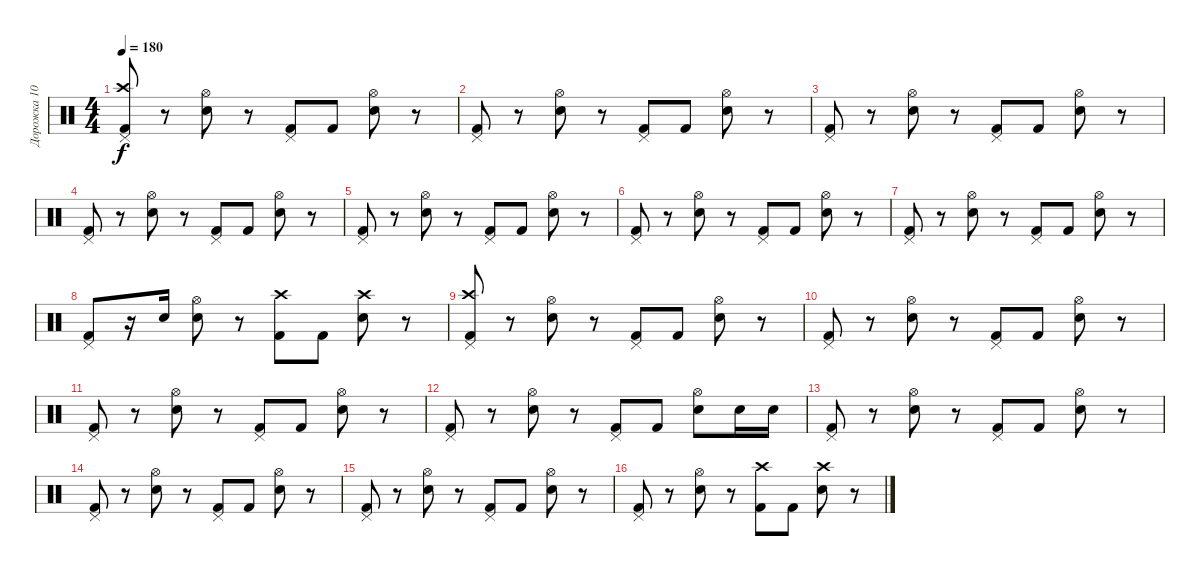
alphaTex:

\track ("Дорожка 10" "Дорожка 10") {instrument percussion}
\staff {score}
\articulation defaults
\ts (4 4)
\tempo 180
\clef neutral
\ks c
("Kick (hit) 2" "Crash high (hit)" "Pedal Hi-Hat (hit)").8{dy f} r.8 ("Snare (hit) 2" "Hi-Hat (open)").8 r.8 ("Kick (hit) 2" "Pedal Hi-Hat (hit)").8 "Kick (hit) 2".8 ("Snare (hit) 2" "Hi-Hat (open)").8 r.8 |
("Kick (hit) 2" "Pedal Hi-Hat (hit)").8 r.8 ("Snare (hit) 2" "Hi-Hat (open)").8 r.8 ("Kick (hit) 2" "Pedal Hi-Hat (hit)").8 "Kick (hit) 2".8 ("Snare (hit) 2" "Hi-Hat (open)").8 r.8 |
("Kick (hit) 2" "Pedal Hi-Hat (hit)").8 r.8 ("Snare (hit) 2" "Hi-Hat (open)").8 r.8 ("Kick (hit) 2" "Pedal Hi-Hat (hit)").8 "Kick (hit) 2".8 ("Snare (hit) 2" "Hi-Hat (open)").8 r.8 |
("Kick (hit) 2" "Pedal Hi-Hat (hit)").8 r.8 ("Snare (hit) 2" "Hi-Hat (open)").8 r.8 ("Kick (hit) 2" "Pedal Hi-Hat (hit)").8 "Kick (hit) 2".8 ("Snare (hit) 2" "Hi-Hat (open)").8 r.8 |
("Kick (hit) 2" "Pedal Hi-Hat (hit)").8 r.8 ("Snare (hit) 2" "Hi-Hat (open)").8 r.8 ("Kick (hit) 2" "Pedal Hi-Hat (hit)").8 "Kick (hit) 2".8 ("Snare (hit) 2" "Hi-Hat (open)").8 r.8 |
("Kick (hit) 2" "Pedal Hi-Hat (hit)").8 r.8 ("Snare (hit) 2" "Hi-Hat (open)").8 r.8 ("Kick (hit) 2" "Pedal Hi-Hat (hit)").8 "Kick (hit) 2".8 ("Snare (hit) 2" "Hi-Hat (open)").8 r.8 |
("Kick (hit) 2" "Pedal Hi-Hat (hit)").8 r.8 ("Snare (hit) 2" "Hi-Hat (open)").8 r.8 ("Kick (hit) 2" "Pedal Hi-Hat (hit)").8 "Kick (hit) 2".8 ("Snare (hit) 2" "Hi-Hat (open)").8 r.8 |
("Kick (hit) 2" "Pedal Hi-Hat (hit)").8 r.16 "Snare (hit) 2".16 ("Snare (hit) 2" "Hi-Hat (open)").8 r.8 ("Kick (hit) 2" "Crash high (hit)").8 "Kick (hit) 2".8 ("Snare (hit) 2" "Crash high (hit)").8 r.8 |
("Kick (hit) 2" "Crash high (hit)" "Pedal Hi-Hat (hit)").8 r.8 ("Snare (hit) 2" "Hi-Hat (open)").8 r.8 ("Kick (hit) 2" "Pedal Hi-Hat (hit)").8 "Kick (hit) 2".8 ("Snare (hit) 2" "Hi-Hat (open)").8 r.8 |
("Kick (hit) 2" "Pedal Hi-Hat (hit)").8 r.8 ("Snare (hit) 2" "Hi-Hat (open)").8 r.8 ("Kick (hit) 2" "Pedal Hi-Hat (hit)").8 "Kick (hit) 2".8 ("Snare (hit) 2" "Hi-Hat (open)").8 r.8 |
("Kick (hit) 2" "Pedal Hi-Hat (hit)").8 r.8 ("Snare (hit) 2" "Hi-Hat (open)").8 r.8 ("Kick (hit) 2" "Pedal Hi-Hat (hit)").8 "Kick (hit) 2".8 ("Snare (hit) 2" "Hi-Hat (open)").8 r.8 |
("Kick (hit) 2" "Pedal Hi-Hat (hit)").8 r.8 ("Snare (hit) 2" "Hi-Hat (open)").8 r.8 ("Kick (hit) 2" "Pedal Hi-Hat (hit)").8 "Kick (hit) 2".8 ("Snare (hit) 2" "Hi-Hat (open)").8 "Snare (hit) 2".16 "Snare (hit) 2".16 |
("Kick (hit) 2" "Pedal Hi-Hat (hit)").8 r.8 ("Snare (hit) 2" "Hi-Hat (open)").8 r.8 ("Kick (hit) 2" "Pedal Hi-Hat (hit)").8 "Kick (hit) 2".8 ("Snare (hit) 2" "Hi-Hat (open)").8 r.8 |
("Kick (hit) 2" "Pedal Hi-Hat (hit)").8 r.8 ("Snare (hit) 2" "Hi-Hat (open)").8 r.8 ("Kick (hit) 2" "Pedal Hi-Hat (hit)").8 "Kick (hit) 2".8 ("Snare (hit) 2" "Hi-Hat (open)").8 r.8 |
("Kick (hit) 2" "Pedal Hi-Hat (hit)").8 r.8 ("Snare (hit) 2" "Hi-Hat (open)").8 r.8 ("Kick (hit) 2" "Pedal Hi-Hat (hit)").8 "Kick (hit) 2".8 ("Snare (hit) 2" "Hi-Hat (open)").8 r.8 |
("Kick (hit) 2" "Pedal Hi-Hat (hit)").8 r.8 ("Snare (hit) 2" "Hi-Hat (open)").8 r.8 ("Kick (hit) 2" "Crash high (hit)").8 "Kick (hit) 2".8 ("Snare (hit) 2" "Crash high (hit)").8 r.8
